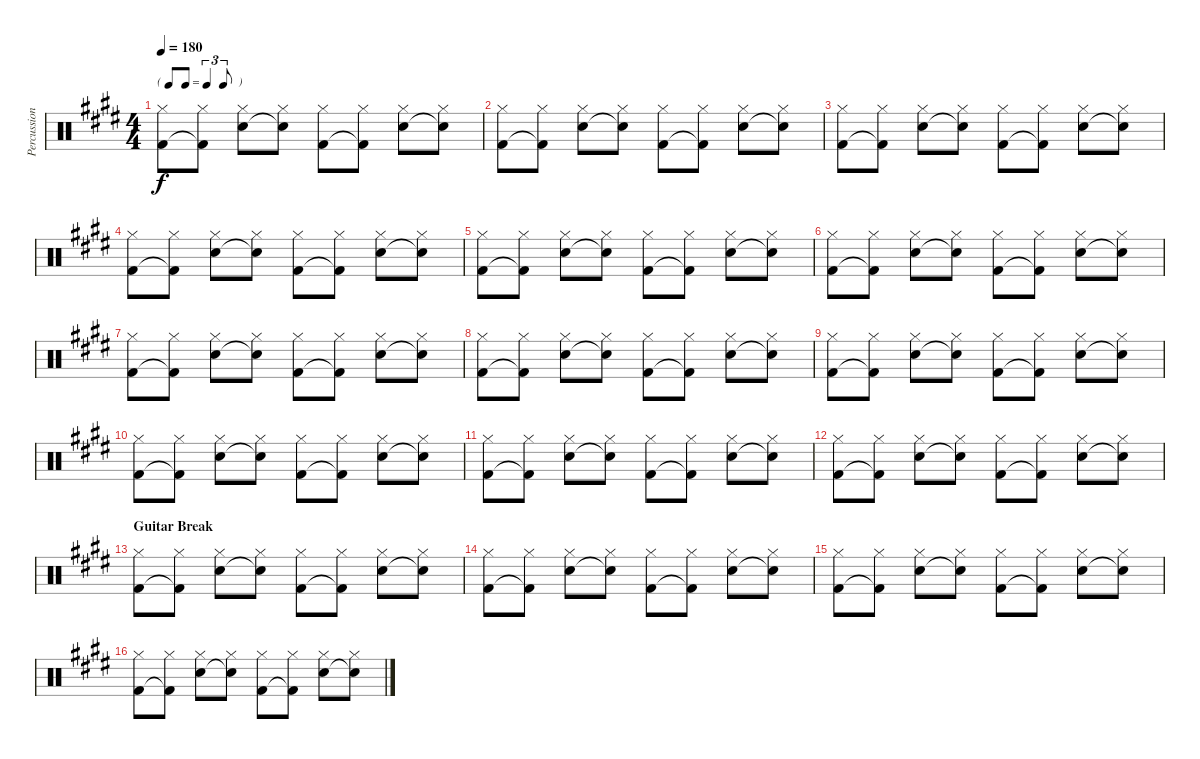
\track ("Percussion" "Percussion") {instrument percussion}
\staff {score}
\articulation defaults
\ts (4 4)
\tf triplet8th
\tempo 180
\clef neutral
\ks e
("Hi-Hat (closed)" "Kick (hit) 2").8{dy f} ("Hi-Hat (closed)" "Kick (hit) 2"{t}).8 ("Hi-Hat (closed)" "Snare (hit) 2").8 ("Hi-Hat (closed)" "Snare (hit) 2"{t}).8 ("Hi-Hat (closed)" "Kick (hit) 2").8 ("Hi-Hat (closed)" "Kick (hit) 2"{t}).8 ("Hi-Hat (closed)" "Snare (hit) 2").8 ("Hi-Hat (closed)" "Snare (hit) 2"{t}).8 |
("Hi-Hat (closed)" "Kick (hit) 2").8 ("Hi-Hat (closed)" "Kick (hit) 2"{t}).8 ("Hi-Hat (closed)" "Snare (hit) 2").8 ("Hi-Hat (closed)" "Snare (hit) 2"{t}).8 ("Hi-Hat (closed)" "Kick (hit) 2").8 ("Hi-Hat (closed)" "Kick (hit) 2"{t}).8 ("Hi-Hat (closed)" "Snare (hit) 2").8 ("Hi-Hat (closed)" "Snare (hit) 2"{t}).8 |
("Hi-Hat (closed)" "Kick (hit) 2").8 ("Hi-Hat (closed)" "Kick (hit) 2"{t}).8 ("Hi-Hat (closed)" "Snare (hit) 2").8 ("Hi-Hat (closed)" "Snare (hit) 2"{t}).8 ("Hi-Hat (closed)" "Kick (hit) 2").8 ("Hi-Hat (closed)" "Kick (hit) 2"{t}).8 ("Hi-Hat (closed)" "Snare (hit) 2").8 ("Hi-Hat (closed)" "Snare (hit) 2"{t}).8 |
("Hi-Hat (closed)" "Kick (hit) 2").8 ("Hi-Hat (closed)" "Kick (hit) 2"{t}).8 ("Hi-Hat (closed)" "Snare (hit) 2").8 ("Hi-Hat (closed)" "Snare (hit) 2"{t}).8 ("Hi-Hat (closed)" "Kick (hit) 2").8 ("Hi-Hat (closed)" "Kick (hit) 2"{t}).8 ("Hi-Hat (closed)" "Snare (hit) 2").8 ("Hi-Hat (closed)" "Snare (hit) 2"{t}).8 |
("Hi-Hat (closed)" "Kick (hit) 2").8 ("Hi-Hat (closed)" "Kick (hit) 2"{t}).8 ("Hi-Hat (closed)" "Snare (hit) 2").8 ("Hi-Hat (closed)" "Snare (hit) 2"{t}).8 ("Hi-Hat (closed)" "Kick (hit) 2").8 ("Hi-Hat (closed)" "Kick (hit) 2"{t}).8 ("Hi-Hat (closed)" "Snare (hit) 2").8 ("Hi-Hat (closed)" "Snare (hit) 2"{t}).8 |
("Hi-Hat (closed)" "Kick (hit) 2").8 ("Hi-Hat (closed)" "Kick (hit) 2"{t}).8 ("Hi-Hat (closed)" "Snare (hit) 2").8 ("Hi-Hat (closed)" "Snare (hit) 2"{t}).8 ("Hi-Hat (closed)" "Kick (hit) 2").8 ("Hi-Hat (closed)" "Kick (hit) 2"{t}).8 ("Hi-Hat (closed)" "Snare (hit) 2").8 ("Hi-Hat (closed)" "Snare (hit) 2"{t}).8 |
("Hi-Hat (closed)" "Kick (hit) 2").8 ("Hi-Hat (closed)" "Kick (hit) 2"{t}).8 ("Hi-Hat (closed)" "Snare (hit) 2").8 ("Hi-Hat (closed)" "Snare (hit) 2"{t}).8 ("Hi-Hat (closed)" "Kick (hit) 2").8 ("Hi-Hat (closed)" "Kick (hit) 2"{t}).8 ("Hi-Hat (closed)" "Snare (hit) 2").8 ("Hi-Hat (closed)" "Snare (hit) 2"{t}).8 |
("Hi-Hat (closed)" "Kick (hit) 2").8 ("Hi-Hat (closed)" "Kick (hit) 2"{t}).8 ("Hi-Hat (closed)" "Snare (hit) 2").8 ("Hi-Hat (closed)" "Snare (hit) 2"{t}).8 ("Hi-Hat (closed)" "Kick (hit) 2").8 ("Hi-Hat (closed)" "Kick (hit) 2"{t}).8 ("Hi-Hat (closed)" "Snare (hit) 2").8 ("Hi-Hat (closed)" "Snare (hit) 2"{t}).8 |
("Hi-Hat (closed)" "Kick (hit) 2").8 ("Hi-Hat (closed)" "Kick (hit) 2"{t}).8 ("Hi-Hat (closed)" "Snare (hit) 2").8 ("Hi-Hat (closed)" "Snare (hit) 2"{t}).8 ("Hi-Hat (closed)" "Kick (hit) 2").8 ("Hi-Hat (closed)" "Kick (hit) 2"{t}).8 ("Hi-Hat (closed)" "Snare (hit) 2").8 ("Hi-Hat (closed)" "Snare (hit) 2"{t}).8 |
("Hi-Hat (closed)" "Kick (hit) 2").8 ("Hi-Hat (closed)" "Kick (hit) 2"{t}).8 ("Hi-Hat (closed)" "Snare (hit) 2").8 ("Hi-Hat (closed)" "Snare (hit) 2"{t}).8 ("Hi-Hat (closed)" "Kick (hit) 2").8 ("Hi-Hat (closed)" "Kick (hit) 2"{t}).8 ("Hi-Hat (closed)" "Snare (hit) 2").8 ("Hi-Hat (closed)" "Snare (hit) 2"{t}).8 |
("Hi-Hat (closed)" "Kick (hit) 2").8 ("Hi-Hat (closed)" "Kick (hit) 2"{t}).8 ("Hi-Hat (closed)" "Snare (hit) 2").8 ("Hi-Hat (closed)" "Snare (hit) 2"{t}).8 ("Hi-Hat (closed)" "Kick (hit) 2").8 ("Hi-Hat (closed)" "Kick (hit) 2"{t}).8 ("Hi-Hat (closed)" "Snare (hit) 2").8 ("Hi-Hat (closed)" "Snare (hit) 2"{t}).8 |
("Hi-Hat (closed)" "Kick (hit) 2").8 ("Hi-Hat (closed)" "Kick (hit) 2"{t}).8 ("Hi-Hat (closed)" "Snare (hit) 2").8 ("Hi-Hat (closed)" "Snare (hit) 2"{t}).8 ("Hi-Hat (closed)" "Kick (hit) 2").8 ("Hi-Hat (closed)" "Kick (hit) 2"{t}).8 ("Hi-Hat (closed)" "Snare (hit) 2").8 ("Hi-Hat (closed)" "Snare (hit) 2"{t}).8 |
\section ("" "Guitar Break")
("Hi-Hat (closed)" "Kick (hit) 2").8 ("Hi-Hat (closed)" "Kick (hit) 2"{t}).8 ("Hi-Hat (closed)" "Snare (hit) 2").8 ("Hi-Hat (closed)" "Snare (hit) 2"{t}).8 ("Hi-Hat (closed)" "Kick (hit) 2").8 ("Hi-Hat (closed)" "Kick (hit) 2"{t}).8 ("Hi-Hat (closed)" "Snare (hit) 2").8 ("Hi-Hat (closed)" "Snare (hit) 2"{t}).8 |
("Hi-Hat (closed)" "Kick (hit) 2").8 ("Hi-Hat (closed)" "Kick (hit) 2"{t}).8 ("Hi-Hat (closed)" "Snare (hit) 2").8 ("Hi-Hat (closed)" "Snare (hit) 2"{t}).8 ("Hi-Hat (closed)" "Kick (hit) 2").8 ("Hi-Hat (closed)" "Kick (hit) 2"{t}).8 ("Hi-Hat (closed)" "Snare (hit) 2").8 ("Hi-Hat (closed)" "Snare (hit) 2"{t}).8 |
("Hi-Hat (closed)" "Kick (hit) 2").8 ("Hi-Hat (closed)" "Kick (hit) 2"{t}).8 ("Hi-Hat (closed)" "Snare (hit) 2").8 ("Hi-Hat (closed)" "Snare (hit) 2"{t}).8 ("Hi-Hat (closed)" "Kick (hit) 2").8 ("Hi-Hat (closed)" "Kick (hit) 2"{t}).8 ("Hi-Hat (closed)" "Snare (hit) 2").8 ("Hi-Hat (closed)" "Snare (hit) 2"{t}).8 |
("Hi-Hat (closed)" "Kick (hit) 2").8 ("Hi-Hat (closed)" "Kick (hit) 2"{t}).8 ("Hi-Hat (closed)" "Snare (hit) 2").8 ("Hi-Hat (closed)" "Snare (hit) 2"{t}).8 ("Hi-Hat (closed)" "Kick (hit) 2").8 ("Hi-Hat (closed)" "Kick (hit) 2"{t}).8 ("Hi-Hat (closed)" "Snare (hit) 2").8 ("Hi-Hat (closed)" "Snare (hit) 2"{t}).8
